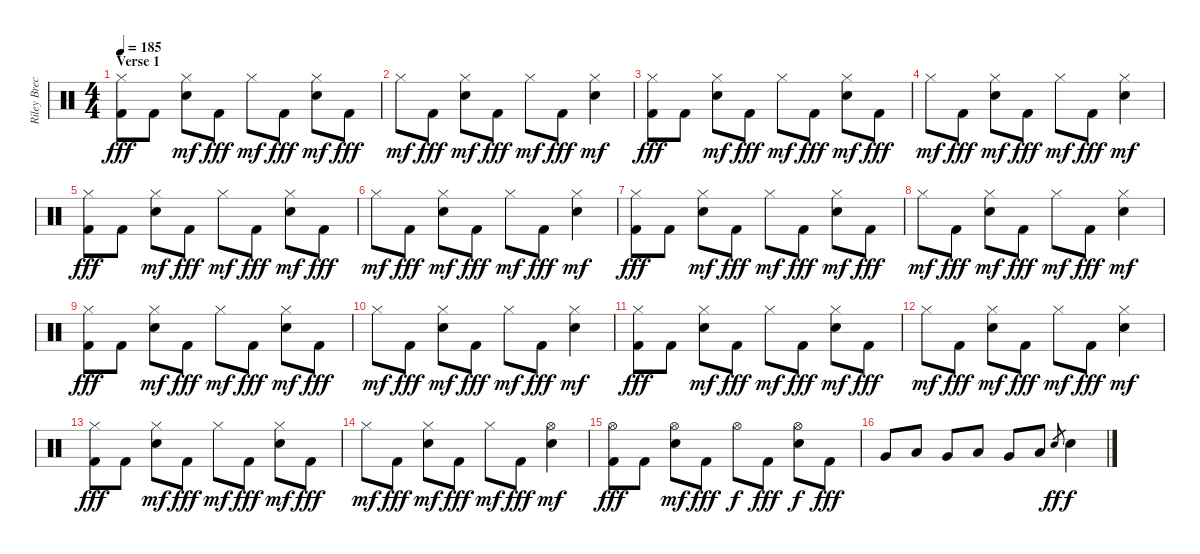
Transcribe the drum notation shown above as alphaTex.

\track ("Riley Breckenridge (Drums)" "Riley Brec") {instrument percussion}
\staff {score}
\articulation defaults
\ts (4 4)
\section ("" "Verse 1")
\tempo 185
\clef neutral
\ks c
("Hi-Hat (closed)" "Kick (hit) 2").8{dy fff} "Kick (hit) 2".8 ("Hi-Hat (closed)" "Electric Snare (hit)").8{dy mf} "Kick (hit) 2".8{dy fff} "Hi-Hat (closed)".8{dy mf} "Kick (hit) 2".8{dy fff} ("Hi-Hat (closed)" "Electric Snare (hit)").8{dy mf} "Kick (hit) 2".8{dy fff} |
"Hi-Hat (closed)".8{dy mf} "Kick (hit) 2".8{dy fff} ("Hi-Hat (closed)" "Electric Snare (hit)").8{dy mf} "Kick (hit) 2".8{dy fff} "Hi-Hat (closed)".8{dy mf} "Kick (hit) 2".8{dy fff} ("Hi-Hat (closed)" "Electric Snare (hit)").4{dy mf} |
("Hi-Hat (closed)" "Kick (hit) 2").8{dy fff} "Kick (hit) 2".8 ("Hi-Hat (closed)" "Electric Snare (hit)").8{dy mf} "Kick (hit) 2".8{dy fff} "Hi-Hat (closed)".8{dy mf} "Kick (hit) 2".8{dy fff} ("Hi-Hat (closed)" "Electric Snare (hit)").8{dy mf} "Kick (hit) 2".8{dy fff} |
"Hi-Hat (closed)".8{dy mf} "Kick (hit) 2".8{dy fff} ("Hi-Hat (closed)" "Electric Snare (hit)").8{dy mf} "Kick (hit) 2".8{dy fff} "Hi-Hat (closed)".8{dy mf} "Kick (hit) 2".8{dy fff} ("Hi-Hat (closed)" "Electric Snare (hit)").4{dy mf} |
("Hi-Hat (closed)" "Kick (hit) 2").8{dy fff} "Kick (hit) 2".8 ("Hi-Hat (closed)" "Electric Snare (hit)").8{dy mf} "Kick (hit) 2".8{dy fff} "Hi-Hat (closed)".8{dy mf} "Kick (hit) 2".8{dy fff} ("Hi-Hat (closed)" "Electric Snare (hit)").8{dy mf} "Kick (hit) 2".8{dy fff} |
"Hi-Hat (closed)".8{dy mf} "Kick (hit) 2".8{dy fff} ("Hi-Hat (closed)" "Electric Snare (hit)").8{dy mf} "Kick (hit) 2".8{dy fff} "Hi-Hat (closed)".8{dy mf} "Kick (hit) 2".8{dy fff} ("Hi-Hat (closed)" "Electric Snare (hit)").4{dy mf} |
("Hi-Hat (closed)" "Kick (hit) 2").8{dy fff} "Kick (hit) 2".8 ("Hi-Hat (closed)" "Electric Snare (hit)").8{dy mf} "Kick (hit) 2".8{dy fff} "Hi-Hat (closed)".8{dy mf} "Kick (hit) 2".8{dy fff} ("Hi-Hat (closed)" "Electric Snare (hit)").8{dy mf} "Kick (hit) 2".8{dy fff} |
"Hi-Hat (closed)".8{dy mf} "Kick (hit) 2".8{dy fff} ("Hi-Hat (closed)" "Electric Snare (hit)").8{dy mf} "Kick (hit) 2".8{dy fff} "Hi-Hat (closed)".8{dy mf} "Kick (hit) 2".8{dy fff} ("Hi-Hat (closed)" "Electric Snare (hit)").4{dy mf} |
("Hi-Hat (closed)" "Kick (hit) 2").8{dy fff} "Kick (hit) 2".8 ("Hi-Hat (closed)" "Electric Snare (hit)").8{dy mf} "Kick (hit) 2".8{dy fff} "Hi-Hat (closed)".8{dy mf} "Kick (hit) 2".8{dy fff} ("Hi-Hat (closed)" "Electric Snare (hit)").8{dy mf} "Kick (hit) 2".8{dy fff} |
"Hi-Hat (closed)".8{dy mf} "Kick (hit) 2".8{dy fff} ("Hi-Hat (closed)" "Electric Snare (hit)").8{dy mf} "Kick (hit) 2".8{dy fff} "Hi-Hat (closed)".8{dy mf} "Kick (hit) 2".8{dy fff} ("Hi-Hat (closed)" "Electric Snare (hit)").4{dy mf} |
("Hi-Hat (closed)" "Kick (hit) 2").8{dy fff} "Kick (hit) 2".8 ("Hi-Hat (closed)" "Electric Snare (hit)").8{dy mf} "Kick (hit) 2".8{dy fff} "Hi-Hat (closed)".8{dy mf} "Kick (hit) 2".8{dy fff} ("Hi-Hat (closed)" "Electric Snare (hit)").8{dy mf} "Kick (hit) 2".8{dy fff} |
"Hi-Hat (closed)".8{dy mf} "Kick (hit) 2".8{dy fff} ("Hi-Hat (closed)" "Electric Snare (hit)").8{dy mf} "Kick (hit) 2".8{dy fff} "Hi-Hat (closed)".8{dy mf} "Kick (hit) 2".8{dy fff} ("Hi-Hat (closed)" "Electric Snare (hit)").4{dy mf} |
("Hi-Hat (closed)" "Kick (hit) 2").8{dy fff} "Kick (hit) 2".8 ("Hi-Hat (closed)" "Electric Snare (hit)").8{dy mf} "Kick (hit) 2".8{dy fff} "Hi-Hat (closed)".8{dy mf} "Kick (hit) 2".8{dy fff} ("Hi-Hat (closed)" "Electric Snare (hit)").8{dy mf} "Kick (hit) 2".8{dy fff} |
"Hi-Hat (closed)".8{dy mf} "Kick (hit) 2".8{dy fff} ("Hi-Hat (closed)" "Electric Snare (hit)").8{dy mf} "Kick (hit) 2".8{dy fff} "Hi-Hat (closed)".8{dy mf} "Kick (hit) 2".8{dy fff} ("Hi-Hat (open)" "Electric Snare (hit)").4{dy mf} |
("Hi-Hat (open)" "Kick (hit) 2").8{dy fff} "Kick (hit) 2".8 ("Hi-Hat (open)" "Electric Snare (hit)").8{dy mf} "Kick (hit) 2".8{dy fff} "Hi-Hat (open)".8{dy f} "Kick (hit) 2".8{dy fff} ("Hi-Hat (open)" "Electric Snare (hit)").8{dy f} "Kick (hit) 2".8{dy fff} |
"Very Low Tom (hit)".8 "Low Floor Tom (hit)".8 "Very Low Tom (hit)".8 "Low Floor Tom (hit)".8 "Very Low Tom (hit)".8 "Low Floor Tom (hit)".8 "Electric Snare (hit)".8{gr dy ff} "Electric Snare (hit)".4{dy f}
